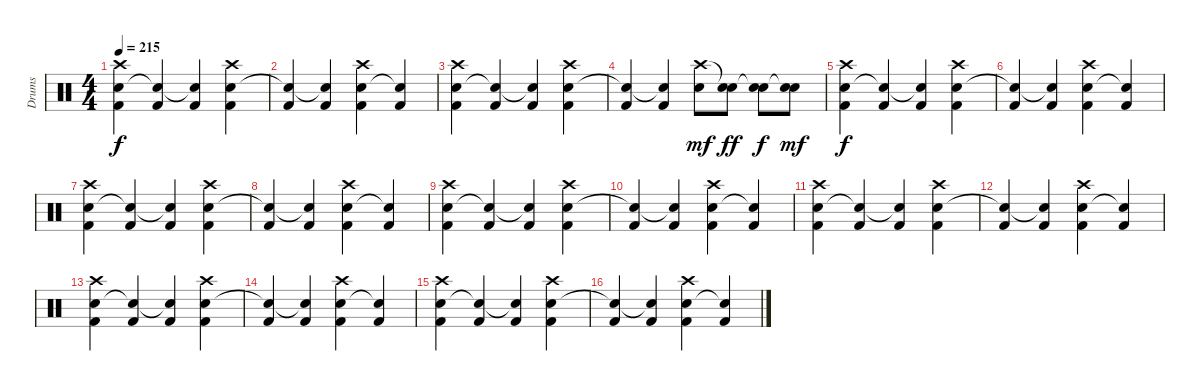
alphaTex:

\track ("Drums" "Drums") {instrument percussion}
\staff {score}
\articulation defaults
\ts (4 4)
\tempo 215
\clef neutral
\ks c
("Kick (hit) 2" "Snare (hit) 2" "Crash high (hit)").4{dy f} ("Kick (hit) 2" "Snare (hit)"{t}).4 ("Kick (hit) 2" "Snare (hit)"{t}).4 ("Kick (hit) 2" "Snare (hit) 2" "Crash high (hit)").4 |
("Kick (hit) 2" "Snare (hit)"{t}).4 ("Kick (hit) 2" "Snare (hit)"{t}).4 ("Kick (hit) 2" "Snare (hit) 2" "Crash high (hit)").4 ("Kick (hit) 2" "Snare (hit)"{t}).4 |
("Kick (hit) 2" "Snare (hit) 2" "Crash high (hit)").4 ("Kick (hit) 2" "Snare (hit)"{t}).4 ("Kick (hit) 2" "Snare (hit)"{t}).4 ("Kick (hit) 2" "Snare (hit) 2" "Crash high (hit)").4 |
("Kick (hit) 2" "Snare (hit)"{t}).4 ("Kick (hit) 2" "Snare (hit)"{t}).4 ("Snare (hit) 2" "Crash high (hit)").8{dy mf} ("Snare (hit) 2" "Snare (hit)"{t}).8{dy ff} ("Snare (hit) 2" "Snare (hit)"{t}).8{dy f} ("Snare (hit) 2" "Snare (hit)"{t}).8{dy mf} |
("Kick (hit) 2" "Snare (hit) 2" "Crash high (hit)").4{dy f} ("Kick (hit) 2" "Snare (hit)"{t}).4 ("Kick (hit) 2" "Snare (hit)"{t}).4 ("Kick (hit) 2" "Snare (hit) 2" "Crash high (hit)").4 |
("Kick (hit) 2" "Snare (hit)"{t}).4 ("Kick (hit) 2" "Snare (hit)"{t}).4 ("Kick (hit) 2" "Snare (hit) 2" "Crash high (hit)").4 ("Kick (hit) 2" "Snare (hit)"{t}).4 |
("Kick (hit) 2" "Snare (hit) 2" "Crash high (hit)").4 ("Kick (hit) 2" "Snare (hit)"{t}).4 ("Kick (hit) 2" "Snare (hit)"{t}).4 ("Kick (hit) 2" "Snare (hit) 2" "Crash high (hit)").4 |
("Kick (hit) 2" "Snare (hit)"{t}).4 ("Kick (hit) 2" "Snare (hit)"{t}).4 ("Kick (hit) 2" "Snare (hit) 2" "Crash high (hit)").4 ("Kick (hit) 2" "Snare (hit)"{t}).4 |
("Kick (hit) 2" "Snare (hit) 2" "Crash high (hit)").4 ("Kick (hit) 2" "Snare (hit)"{t}).4 ("Kick (hit) 2" "Snare (hit)"{t}).4 ("Kick (hit) 2" "Snare (hit) 2" "Crash high (hit)").4 |
("Kick (hit) 2" "Snare (hit)"{t}).4 ("Kick (hit) 2" "Snare (hit)"{t}).4 ("Kick (hit) 2" "Snare (hit) 2" "Crash high (hit)").4 ("Kick (hit) 2" "Snare (hit)"{t}).4 |
("Kick (hit) 2" "Snare (hit) 2" "Crash high (hit)").4 ("Kick (hit) 2" "Snare (hit)"{t}).4 ("Kick (hit) 2" "Snare (hit)"{t}).4 ("Kick (hit) 2" "Snare (hit) 2" "Crash high (hit)").4 |
("Kick (hit) 2" "Snare (hit)"{t}).4 ("Kick (hit) 2" "Snare (hit)"{t}).4 ("Kick (hit) 2" "Snare (hit) 2" "Crash high (hit)").4 ("Kick (hit) 2" "Snare (hit)"{t}).4 |
("Kick (hit) 2" "Snare (hit) 2" "Crash high (hit)").4 ("Kick (hit) 2" "Snare (hit)"{t}).4 ("Kick (hit) 2" "Snare (hit)"{t}).4 ("Kick (hit) 2" "Snare (hit) 2" "Crash high (hit)").4 |
("Kick (hit) 2" "Snare (hit)"{t}).4 ("Kick (hit) 2" "Snare (hit)"{t}).4 ("Kick (hit) 2" "Snare (hit) 2" "Crash high (hit)").4 ("Kick (hit) 2" "Snare (hit)"{t}).4 |
("Kick (hit) 2" "Snare (hit) 2" "Crash high (hit)").4 ("Kick (hit) 2" "Snare (hit)"{t}).4 ("Kick (hit) 2" "Snare (hit)"{t}).4 ("Kick (hit) 2" "Snare (hit) 2" "Crash high (hit)").4 |
("Kick (hit) 2" "Snare (hit)"{t}).4 ("Kick (hit) 2" "Snare (hit)"{t}).4 ("Kick (hit) 2" "Snare (hit) 2" "Crash high (hit)").4 ("Kick (hit) 2" "Snare (hit)"{t}).4
